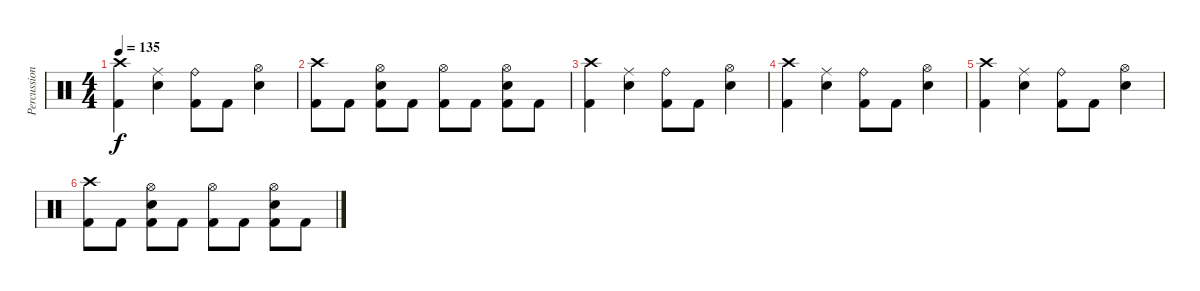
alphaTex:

\track ("Percussion" "Percussion") {instrument percussion}
\staff {score}
\articulation defaults
\ts (4 4)
\tempo 135
\clef neutral
\ks c
("Crash high (hit)" "Kick (hit) 2").4{dy f} ("Ride (middle)" "Electric Snare (hit)").4 ("Ride (bell)" "Kick (hit) 2").8 "Kick (hit) 2".8 ("Hi-Hat (open)" "Electric Snare (hit)").4 |
("Crash high (hit)" "Kick (hit) 2").8 "Kick (hit) 2".8 ("Hi-Hat (open)" "Electric Snare (hit)" "Kick (hit) 2").8 "Kick (hit) 2".8 ("Hi-Hat (open)" "Kick (hit) 2").8 "Kick (hit) 2".8 ("Hi-Hat (open)" "Electric Snare (hit)" "Kick (hit) 2").8 "Kick (hit) 2".8 |
("Crash high (hit)" "Kick (hit) 2").4 ("Ride (middle)" "Electric Snare (hit)").4 ("Ride (bell)" "Kick (hit) 2").8 "Kick (hit) 2".8 ("Hi-Hat (open)" "Electric Snare (hit)").4 |
("Crash high (hit)" "Kick (hit) 2").4 ("Ride (middle)" "Electric Snare (hit)").4 ("Ride (bell)" "Kick (hit) 2").8 "Kick (hit) 2".8 ("Hi-Hat (open)" "Electric Snare (hit)").4 |
("Crash high (hit)" "Kick (hit) 2").4 ("Ride (middle)" "Electric Snare (hit)").4 ("Ride (bell)" "Kick (hit) 2").8 "Kick (hit) 2".8 ("Hi-Hat (open)" "Electric Snare (hit)").4 |
("Crash high (hit)" "Kick (hit) 2").8 "Kick (hit) 2".8 ("Hi-Hat (open)" "Electric Snare (hit)" "Kick (hit) 2").8 "Kick (hit) 2".8 ("Hi-Hat (open)" "Kick (hit) 2").8 "Kick (hit) 2".8 ("Hi-Hat (open)" "Electric Snare (hit)" "Kick (hit) 2").8 "Kick (hit) 2".8
